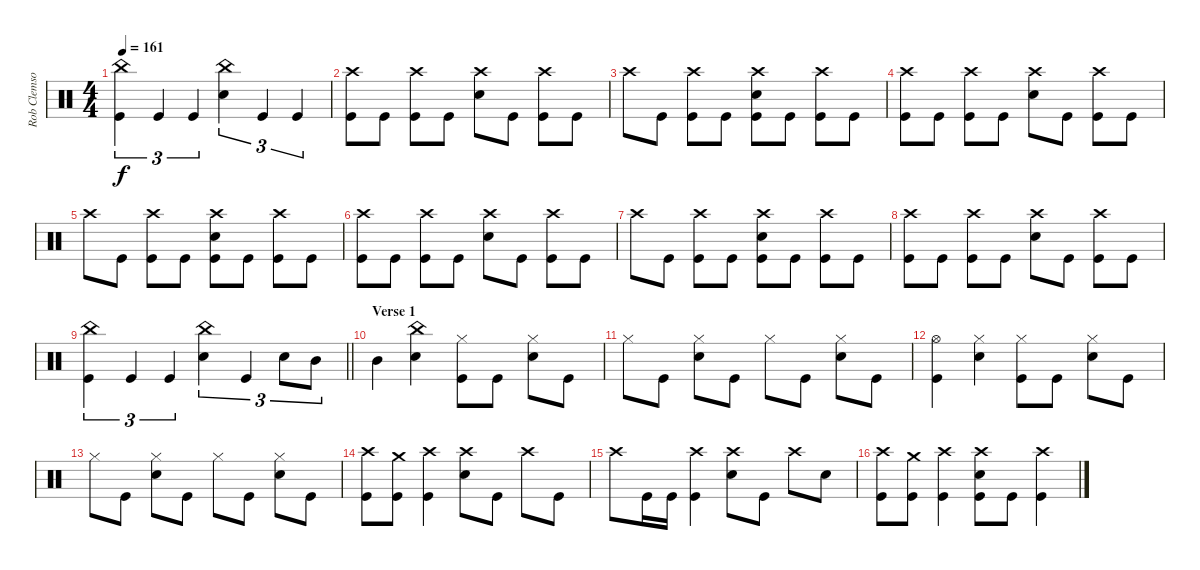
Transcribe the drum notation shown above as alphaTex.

\track ("Rob Clemson (Drums)" "Rob Clemso") {instrument percussion}
\staff {score}
\articulation defaults
\ts (4 4)
\tempo 161
\clef neutral
\ks c
("Kick (hit)" "China (hit)").4{tu (3 2) dy f} "Kick (hit)".4{tu (3 2)} "Kick (hit)".4{tu (3 2)} ("Electric Snare (hit)" "China (hit)").4{tu (3 2)} "Kick (hit)".4{tu (3 2)} "Kick (hit)".4{tu (3 2)} |
("Kick (hit)" "Crash high (hit)").8 "Kick (hit)".8 ("Kick (hit)" "Crash high (hit)").8 "Kick (hit)".8 ("Electric Snare (hit)" "Crash high (hit)").8 "Kick (hit)".8 ("Kick (hit)" "Crash high (hit)").8 "Kick (hit)".8 |
"Crash high (hit)".8 "Kick (hit)".8 ("Kick (hit)" "Crash high (hit)").8 "Kick (hit)".8 ("Crash high (hit)" "Kick (hit)" "Electric Snare (hit)").8 "Kick (hit)".8 ("Kick (hit)" "Crash high (hit)").8 "Kick (hit)".8 |
("Kick (hit)" "Crash high (hit)").8 "Kick (hit)".8 ("Kick (hit)" "Crash high (hit)").8 "Kick (hit)".8 ("Electric Snare (hit)" "Crash high (hit)").8 "Kick (hit)".8 ("Kick (hit)" "Crash high (hit)").8 "Kick (hit)".8 |
"Crash high (hit)".8 "Kick (hit)".8 ("Kick (hit)" "Crash high (hit)").8 "Kick (hit)".8 ("Crash high (hit)" "Kick (hit)" "Electric Snare (hit)").8 "Kick (hit)".8 ("Kick (hit)" "Crash high (hit)").8 "Kick (hit)".8 |
("Kick (hit)" "Crash high (hit)").8 "Kick (hit)".8 ("Kick (hit)" "Crash high (hit)").8 "Kick (hit)".8 ("Electric Snare (hit)" "Crash high (hit)").8 "Kick (hit)".8 ("Kick (hit)" "Crash high (hit)").8 "Kick (hit)".8 |
"Crash high (hit)".8 "Kick (hit)".8 ("Kick (hit)" "Crash high (hit)").8 "Kick (hit)".8 ("Crash high (hit)" "Kick (hit)" "Electric Snare (hit)").8 "Kick (hit)".8 ("Kick (hit)" "Crash high (hit)").8 "Kick (hit)".8 |
("Kick (hit)" "Crash high (hit)").8 "Kick (hit)".8 ("Kick (hit)" "Crash high (hit)").8 "Kick (hit)".8 ("Electric Snare (hit)" "Crash high (hit)").8 "Kick (hit)".8 ("Kick (hit)" "Crash high (hit)").8 "Kick (hit)".8 |
\barLineRight lightlight
("Kick (hit)" "China (hit)").4{tu (3 2)} "Kick (hit)".4{tu (3 2)} "Kick (hit)".4{tu (3 2)} ("Electric Snare (hit)" "China (hit)").4{tu (3 2)} "Kick (hit)".4{tu (3 2)} "Electric Snare (hit)".8{tu (3 2)} "Mid Tom (hit)".8{tu (3 2)} |
\section ("" "Verse 1")
"Mid Tom (hit)".4 ("China (hit)" "Electric Snare (hit)").4 ("Kick (hit)" "Hi-Hat (closed)").8 "Kick (hit)".8 ("Electric Snare (hit)" "Hi-Hat (closed)").8 "Kick (hit)".8 |
"Hi-Hat (closed)".8 "Kick (hit)".8 ("Electric Snare (hit)" "Hi-Hat (closed)").8 "Kick (hit)".8 "Hi-Hat (closed)".8 "Kick (hit)".8 ("Electric Snare (hit)" "Hi-Hat (closed)").8 "Kick (hit)".8 |
("Kick (hit)" "Hi-Hat (open)").4 ("Electric Snare (hit)" "Hi-Hat (closed)").4 ("Kick (hit)" "Hi-Hat (closed)").8 "Kick (hit)".8 ("Electric Snare (hit)" "Hi-Hat (closed)").8 "Kick (hit)".8 |
"Hi-Hat (closed)".8 "Kick (hit)".8 ("Electric Snare (hit)" "Hi-Hat (closed)").8 "Kick (hit)".8 "Hi-Hat (closed)".8 "Kick (hit)".8 ("Electric Snare (hit)" "Hi-Hat (closed)").8 "Kick (hit)".8 |
("Kick (hit)" "Crash high (hit)").8 ("Kick (hit)" "Crash medium (hit)").8 ("Kick (hit)" "Crash high (hit)").4 ("Crash high (hit)" "Electric Snare (hit)").8 "Kick (hit)".8 "Crash high (hit)".8 "Kick (hit)".8 |
"Crash high (hit)".8 "Kick (hit)".16 "Kick (hit)".16 ("Kick (hit)" "Crash high (hit)").4 ("Crash high (hit)" "Electric Snare (hit)").8 "Kick (hit)".8 "Crash high (hit)".8 "Electric Snare (hit)".8 |
("Kick (hit)" "Crash high (hit)").8 ("Kick (hit)" "Crash medium (hit)").8 ("Kick (hit)" "Crash high (hit)").4 ("Crash high (hit)" "Electric Snare (hit)" "Kick (hit)").8 "Kick (hit)".8 ("Kick (hit)" "Crash high (hit)").4
